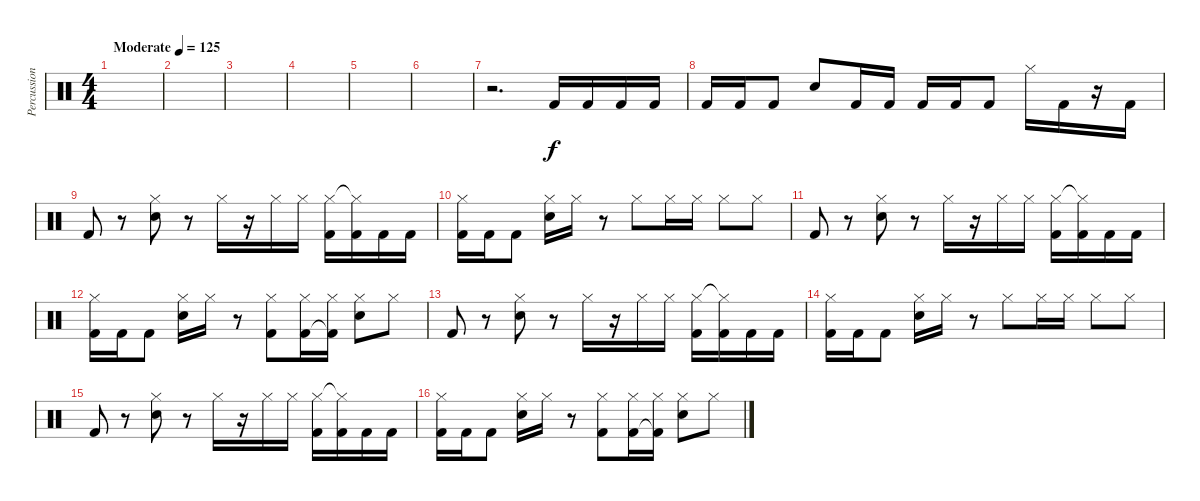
\track ("Percussion" "Percussion") {instrument percussion}
\staff {score}
\articulation defaults
\ts (4 4)
\tempo (125 "Moderate")
\clef neutral
\ks c
|
|
|
|
|
|
r.2{d} "Kick (hit) 2".16 "Kick (hit) 2".16 "Kick (hit) 2".16 "Kick (hit) 2".16 |
"Kick (hit) 2".16 "Kick (hit) 2".16 "Kick (hit) 2".8 "Electric Snare (hit)".8 "Kick (hit) 2".16 "Kick (hit) 2".16 "Kick (hit) 2".16 "Kick (hit) 2".16 "Kick (hit) 2".8 "Hi-Hat (closed)".16 "Kick (hit) 2".16 r.16 "Kick (hit) 2".16 |
"Kick (hit) 2".8 r.8 ("Hi-Hat (closed)" "Electric Snare (hit)").8 r.8 "Hi-Hat (closed)".16 r.16 "Hi-Hat (closed)".16 "Hi-Hat (closed)".16 ("Hi-Hat (closed)" "Kick (hit) 2").16 ("Hi-Hat (closed)"{t} "Kick (hit) 2").16 "Kick (hit) 2".16 "Kick (hit) 2".16 |
("Hi-Hat (closed)" "Kick (hit) 2").16 "Kick (hit) 2".16 "Kick (hit) 2".8 ("Hi-Hat (closed)" "Electric Snare (hit)").16 "Hi-Hat (closed)".16 r.8 "Hi-Hat (closed)".8 "Hi-Hat (closed)".16 "Hi-Hat (closed)".16 "Hi-Hat (closed)".8 "Hi-Hat (closed)".8 |
"Kick (hit) 2".8 r.8 ("Hi-Hat (closed)" "Electric Snare (hit)").8 r.8 "Hi-Hat (closed)".16 r.16 "Hi-Hat (closed)".16 "Hi-Hat (closed)".16 ("Hi-Hat (closed)" "Kick (hit) 2").16 ("Hi-Hat (closed)"{t} "Kick (hit) 2").16 "Kick (hit) 2".16 "Kick (hit) 2".16 |
("Hi-Hat (closed)" "Kick (hit) 2").16 "Kick (hit) 2".16 "Kick (hit) 2".8 ("Hi-Hat (closed)" "Electric Snare (hit)").16 "Hi-Hat (closed)".16 r.8 ("Hi-Hat (closed)" "Kick (hit) 2").8 ("Hi-Hat (closed)" "Kick (hit) 2").16 ("Hi-Hat (closed)" "Kick (hit) 2"{t}).16 ("Hi-Hat (closed)" "Electric Snare (hit)").8 "Hi-Hat (closed)".8 |
"Kick (hit) 2".8 r.8 ("Hi-Hat (closed)" "Electric Snare (hit)").8 r.8 "Hi-Hat (closed)".16 r.16 "Hi-Hat (closed)".16 "Hi-Hat (closed)".16 ("Hi-Hat (closed)" "Kick (hit) 2").16 ("Hi-Hat (closed)"{t} "Kick (hit) 2").16 "Kick (hit) 2".16 "Kick (hit) 2".16 |
("Hi-Hat (closed)" "Kick (hit) 2").16 "Kick (hit) 2".16 "Kick (hit) 2".8 ("Hi-Hat (closed)" "Electric Snare (hit)").16 "Hi-Hat (closed)".16 r.8 "Hi-Hat (closed)".8 "Hi-Hat (closed)".16 "Hi-Hat (closed)".16 "Hi-Hat (closed)".8 "Hi-Hat (closed)".8 |
"Kick (hit) 2".8 r.8 ("Hi-Hat (closed)" "Electric Snare (hit)").8 r.8 "Hi-Hat (closed)".16 r.16 "Hi-Hat (closed)".16 "Hi-Hat (closed)".16 ("Hi-Hat (closed)" "Kick (hit) 2").16 ("Hi-Hat (closed)"{t} "Kick (hit) 2").16 "Kick (hit) 2".16 "Kick (hit) 2".16 |
("Hi-Hat (closed)" "Kick (hit) 2").16 "Kick (hit) 2".16 "Kick (hit) 2".8 ("Hi-Hat (closed)" "Electric Snare (hit)").16 "Hi-Hat (closed)".16 r.8 ("Hi-Hat (closed)" "Kick (hit) 2").8 ("Hi-Hat (closed)" "Kick (hit) 2").16 ("Hi-Hat (closed)" "Kick (hit) 2"{t}).16 ("Hi-Hat (closed)" "Electric Snare (hit)").8 "Hi-Hat (closed)".8
